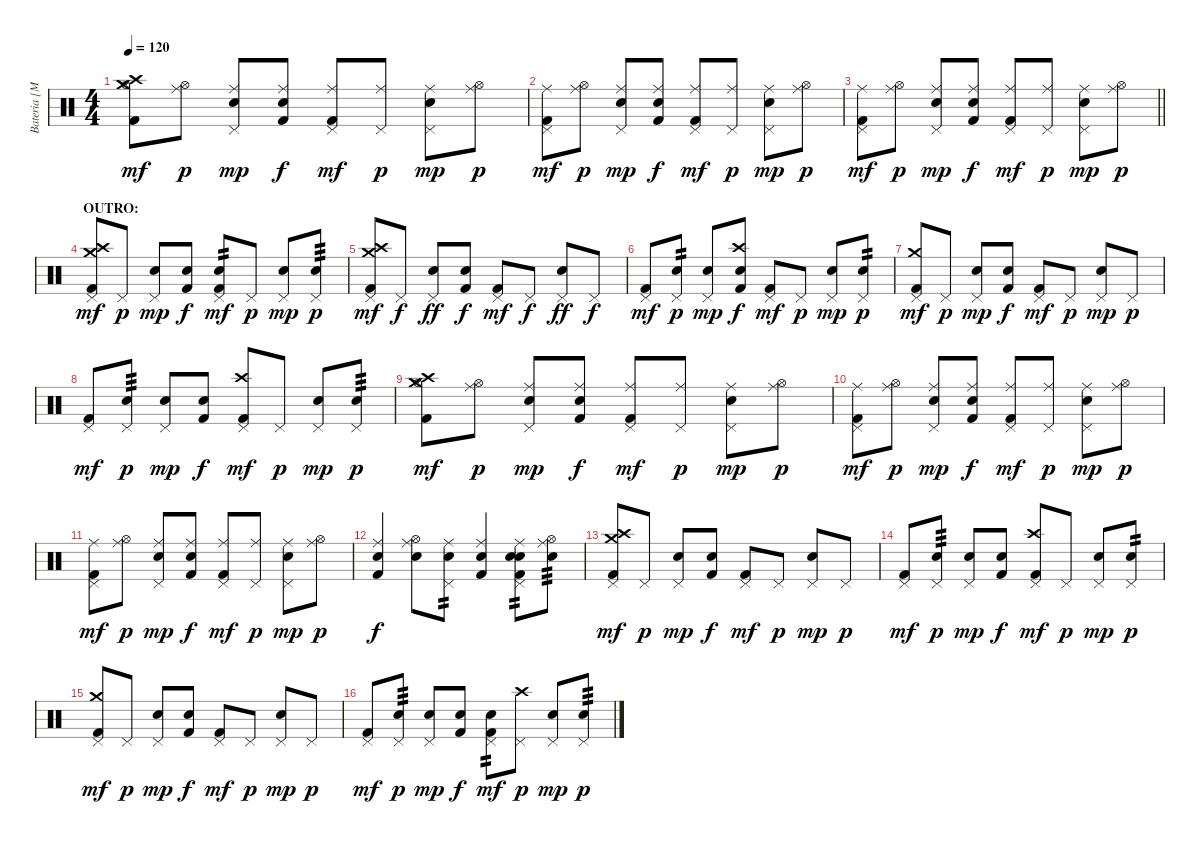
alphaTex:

\track ("Bateria [Mauricio Basualto]" "Bateria [M") {instrument percussion}
\staff {score}
\articulation defaults
\ts (4 4)
\tempo 120
\clef neutral
\ks c
("Kick (hit) 2" "Hi-Hat (open)" "Crash medium (hit)" "Crash high (hit)").8{dy mf} ("Hi-Hat (open)" "Ride (middle)").8{dy p} ("Electric Snare (hit)" "Pedal Hi-Hat (hit)" "Ride (middle)").8{dy mp} ("Electric Snare (hit)" "Kick (hit) 2" "Ride (middle)").8{dy f} ("Kick (hit) 2" "Pedal Hi-Hat (hit)" "Ride (middle)").8{dy mf} ("Pedal Hi-Hat (hit)" "Ride (middle)").8{dy p} ("Electric Snare (hit)" "Pedal Hi-Hat (hit)" "Ride (middle)").8{dy mp} ("Hi-Hat (open)" "Ride (middle)").8{dy p} |
("Kick (hit) 2" "Pedal Hi-Hat (hit)" "Ride (middle)").8{dy mf} ("Hi-Hat (open)" "Ride (middle)").8{dy p} ("Electric Snare (hit)" "Pedal Hi-Hat (hit)" "Ride (middle)").8{dy mp} ("Electric Snare (hit)" "Kick (hit) 2" "Ride (middle)").8{dy f} ("Kick (hit) 2" "Pedal Hi-Hat (hit)" "Ride (middle)").8{dy mf} ("Pedal Hi-Hat (hit)" "Ride (middle)").8{dy p} ("Electric Snare (hit)" "Pedal Hi-Hat (hit)" "Ride (middle)").8{dy mp} ("Hi-Hat (open)" "Ride (middle)").8{dy p} |
\barLineRight lightlight
("Kick (hit) 2" "Pedal Hi-Hat (hit)" "Ride (middle)").8{dy mf} ("Hi-Hat (open)" "Ride (middle)").8{dy p} ("Electric Snare (hit)" "Pedal Hi-Hat (hit)" "Ride (middle)").8{dy mp} ("Electric Snare (hit)" "Kick (hit) 2" "Ride (middle)").8{dy f} ("Kick (hit) 2" "Pedal Hi-Hat (hit)" "Ride (middle)").8{dy mf} ("Pedal Hi-Hat (hit)" "Ride (middle)").8{dy p} ("Electric Snare (hit)" "Pedal Hi-Hat (hit)" "Ride (middle)").8{dy mp} ("Hi-Hat (open)" "Ride (middle)").8{dy p} |
\section ("" "OUTRO: ")
("Kick (hit) 2" "Pedal Hi-Hat (hit)" "Crash medium (hit)" "Crash high (hit)").8{dy mf} "Pedal Hi-Hat (hit)".8{dy p} ("Electric Snare (hit)" "Pedal Hi-Hat (hit)").8{dy mp} ("Electric Snare (hit)" "Kick (hit) 2").8{dy f} ("Kick (hit) 2" "Pedal Hi-Hat (hit)" "Electric Snare (hit)").8{tp 2 dy mf} "Pedal Hi-Hat (hit)".8{dy p} ("Electric Snare (hit)" "Pedal Hi-Hat (hit)").8{dy mp} ("Pedal Hi-Hat (hit)" "Electric Snare (hit)").8{tp 3 dy p} |
("Kick (hit) 2" "Pedal Hi-Hat (hit)" "Crash medium (hit)" "Crash high (hit)").8{dy mf} "Pedal Hi-Hat (hit)".8{dy f} ("Electric Snare (hit)" "Pedal Hi-Hat (hit)").8{dy ff} ("Electric Snare (hit)" "Kick (hit) 2").8{dy f} ("Kick (hit) 2" "Pedal Hi-Hat (hit)").8{dy mf} "Pedal Hi-Hat (hit)".8{dy f} ("Electric Snare (hit)" "Pedal Hi-Hat (hit)").8{dy ff} "Pedal Hi-Hat (hit)".8{dy f} |
("Kick (hit) 2" "Pedal Hi-Hat (hit)").8{dy mf} ("Pedal Hi-Hat (hit)" "Electric Snare (hit)").8{tp 2 dy p} ("Electric Snare (hit)" "Pedal Hi-Hat (hit)").8{dy mp} ("Electric Snare (hit)" "Kick (hit) 2" "Crash high (hit)").8{dy f} ("Kick (hit) 2" "Pedal Hi-Hat (hit)").8{dy mf} "Pedal Hi-Hat (hit)".8{dy p} ("Electric Snare (hit)" "Pedal Hi-Hat (hit)").8{dy mp} ("Pedal Hi-Hat (hit)" "Electric Snare (hit)").8{tp 2 dy p} |
("Kick (hit) 2" "Pedal Hi-Hat (hit)" "Crash medium (hit)").8{dy mf} "Pedal Hi-Hat (hit)".8{dy p} ("Electric Snare (hit)" "Pedal Hi-Hat (hit)").8{dy mp} ("Electric Snare (hit)" "Kick (hit) 2").8{dy f} ("Kick (hit) 2" "Pedal Hi-Hat (hit)").8{dy mf} "Pedal Hi-Hat (hit)".8{dy p} ("Electric Snare (hit)" "Pedal Hi-Hat (hit)").8{dy mp} "Pedal Hi-Hat (hit)".8{dy p} |
("Kick (hit) 2" "Pedal Hi-Hat (hit)").8{dy mf} ("Pedal Hi-Hat (hit)" "Electric Snare (hit)").8{tp 3 dy p} ("Electric Snare (hit)" "Pedal Hi-Hat (hit)").8{dy mp} ("Electric Snare (hit)" "Kick (hit) 2").8{dy f} ("Kick (hit) 2" "Pedal Hi-Hat (hit)" "Crash high (hit)").8{dy mf} "Pedal Hi-Hat (hit)".8{dy p} ("Electric Snare (hit)" "Pedal Hi-Hat (hit)").8{dy mp} ("Pedal Hi-Hat (hit)" "Electric Snare (hit)").8{tp 3 dy p} |
("Kick (hit) 2" "Hi-Hat (open)" "Crash medium (hit)" "Crash high (hit)").8{dy mf} ("Hi-Hat (open)" "Ride (middle)").8{dy p} ("Electric Snare (hit)" "Pedal Hi-Hat (hit)" "Ride (middle)").8{dy mp} ("Electric Snare (hit)" "Kick (hit) 2" "Ride (middle)").8{dy f} ("Kick (hit) 2" "Pedal Hi-Hat (hit)" "Ride (middle)").8{dy mf} ("Pedal Hi-Hat (hit)" "Ride (middle)").8{dy p} ("Electric Snare (hit)" "Pedal Hi-Hat (hit)" "Ride (middle)").8{dy mp} ("Hi-Hat (open)" "Ride (middle)").8{dy p} |
("Kick (hit) 2" "Pedal Hi-Hat (hit)" "Ride (middle)").8{dy mf} ("Hi-Hat (open)" "Ride (middle)").8{dy p} ("Electric Snare (hit)" "Pedal Hi-Hat (hit)" "Ride (middle)").8{dy mp} ("Electric Snare (hit)" "Kick (hit) 2" "Ride (middle)").8{dy f} ("Kick (hit) 2" "Pedal Hi-Hat (hit)" "Ride (middle)").8{dy mf} ("Pedal Hi-Hat (hit)" "Ride (middle)").8{dy p} ("Electric Snare (hit)" "Pedal Hi-Hat (hit)" "Ride (middle)").8{dy mp} ("Hi-Hat (open)" "Ride (middle)").8{dy p} |
("Kick (hit) 2" "Pedal Hi-Hat (hit)" "Ride (middle)").8{dy mf} ("Hi-Hat (open)" "Ride (middle)").8{dy p} ("Electric Snare (hit)" "Pedal Hi-Hat (hit)" "Ride (middle)").8{dy mp} ("Electric Snare (hit)" "Kick (hit) 2" "Ride (middle)").8{dy f} ("Kick (hit) 2" "Pedal Hi-Hat (hit)" "Ride (middle)").8{dy mf} ("Pedal Hi-Hat (hit)" "Ride (middle)").8{dy p} ("Electric Snare (hit)" "Pedal Hi-Hat (hit)" "Ride (middle)").8{dy mp} ("Hi-Hat (open)" "Ride (middle)").8{dy p} |
("Kick (hit) 2" "Electric Snare (hit)" "Ride (middle)").4{dy f} ("Hi-Hat (open)" "Electric Snare (hit)" "Ride (middle)").8 ("Electric Snare (hit)" "Pedal Hi-Hat (hit)" "Ride (middle)").8{tp 2} ("Electric Snare (hit)" "Kick (hit) 2" "Ride (middle)").4 ("Kick (hit) 2" "Electric Snare (hit)" "Pedal Hi-Hat (hit)" "Electric Snare (hit)" "Ride (middle)").8{tp 2} ("Electric Snare (hit)" "Hi-Hat (open)" "Ride (middle)").8{tp 3} |
("Kick (hit) 2" "Pedal Hi-Hat (hit)" "Crash medium (hit)" "Crash high (hit)").8{dy mf} "Pedal Hi-Hat (hit)".8{dy p} ("Electric Snare (hit)" "Pedal Hi-Hat (hit)").8{dy mp} ("Electric Snare (hit)" "Kick (hit) 2").8{dy f} ("Kick (hit) 2" "Pedal Hi-Hat (hit)").8{dy mf} "Pedal Hi-Hat (hit)".8{dy p} ("Electric Snare (hit)" "Pedal Hi-Hat (hit)").8{dy mp} "Pedal Hi-Hat (hit)".8{dy p} |
("Kick (hit) 2" "Pedal Hi-Hat (hit)").8{dy mf} ("Pedal Hi-Hat (hit)" "Electric Snare (hit)").8{tp 3 dy p} ("Electric Snare (hit)" "Pedal Hi-Hat (hit)").8{dy mp} ("Electric Snare (hit)" "Kick (hit) 2").8{dy f} ("Kick (hit) 2" "Pedal Hi-Hat (hit)" "Crash high (hit)").8{dy mf} "Pedal Hi-Hat (hit)".8{dy p} ("Electric Snare (hit)" "Pedal Hi-Hat (hit)").8{dy mp} ("Pedal Hi-Hat (hit)" "Electric Snare (hit)").8{tp 2 dy p} |
("Kick (hit) 2" "Pedal Hi-Hat (hit)" "Crash medium (hit)").8{dy mf} "Pedal Hi-Hat (hit)".8{dy p} ("Electric Snare (hit)" "Pedal Hi-Hat (hit)").8{dy mp} ("Electric Snare (hit)" "Kick (hit) 2").8{dy f} ("Kick (hit) 2" "Pedal Hi-Hat (hit)").8{dy mf} "Pedal Hi-Hat (hit)".8{dy p} ("Electric Snare (hit)" "Pedal Hi-Hat (hit)").8{dy mp} "Pedal Hi-Hat (hit)".8{dy p} |
("Kick (hit) 2" "Pedal Hi-Hat (hit)").8{dy mf} ("Pedal Hi-Hat (hit)" "Electric Snare (hit)").8{tp 3 dy p} ("Electric Snare (hit)" "Pedal Hi-Hat (hit)").8{dy mp} ("Electric Snare (hit)" "Kick (hit) 2").8{dy f} ("Kick (hit) 2" "Pedal Hi-Hat (hit)" "Electric Snare (hit)").8{tp 2 dy mf} ("Pedal Hi-Hat (hit)" "Crash high (hit)").8{dy p} ("Electric Snare (hit)" "Pedal Hi-Hat (hit)").8{dy mp} ("Pedal Hi-Hat (hit)" "Electric Snare (hit)").8{tp 3 dy p}
